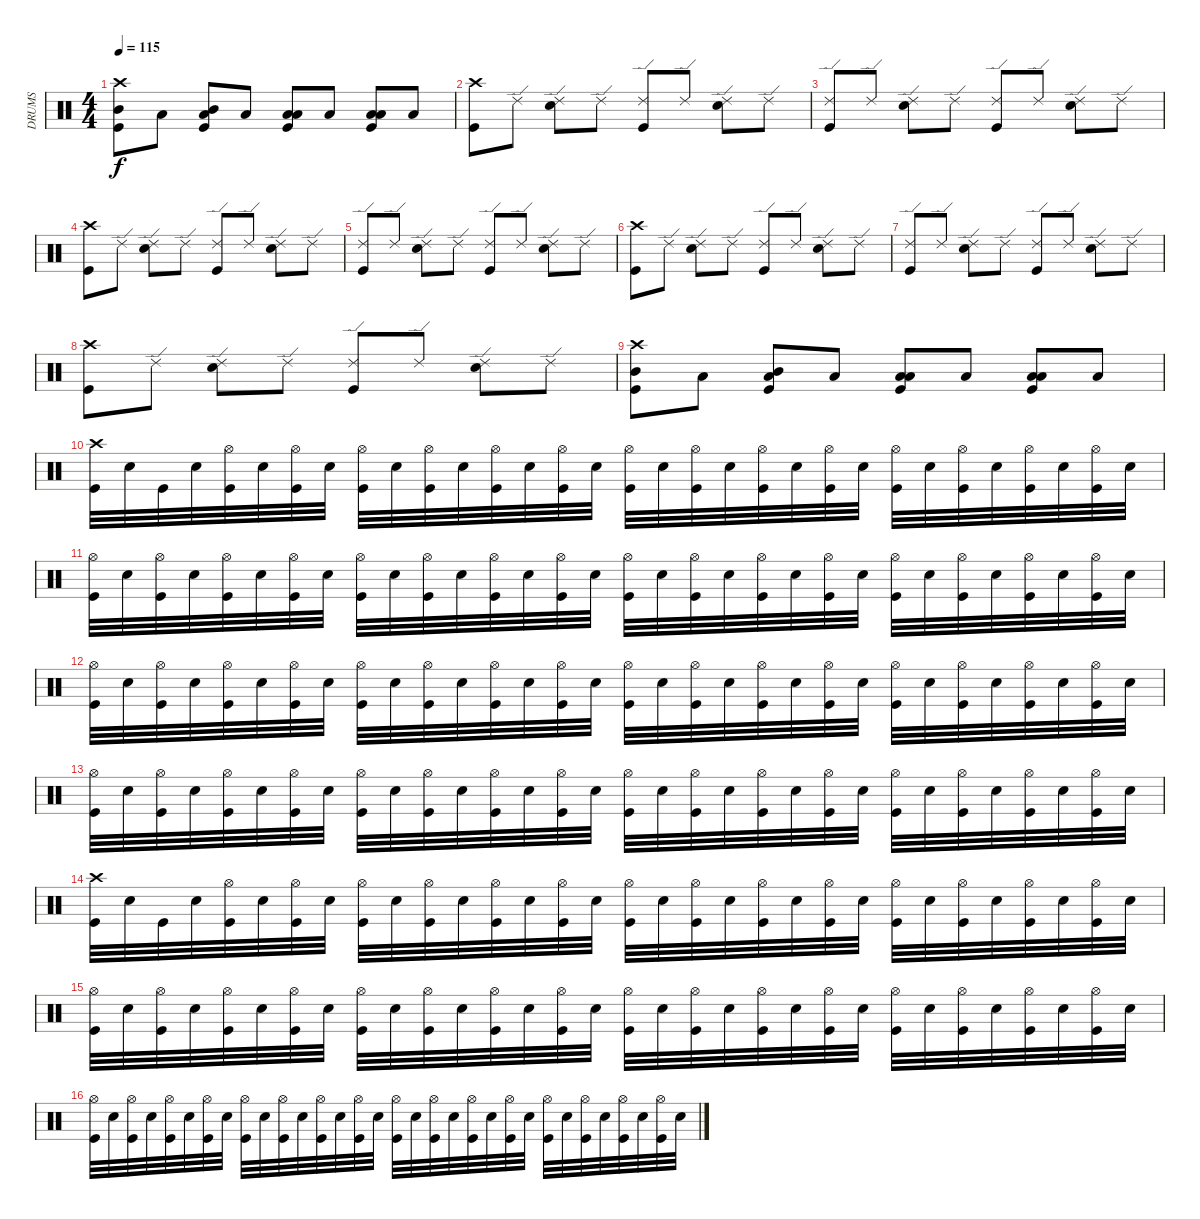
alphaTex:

\track ("DRUMS" "DRUMS") {instrument percussion}
\staff {score}
\articulation defaults
\ts (4 4)
\tempo 115
\clef neutral
\ks c
("Crash high (hit)" "Mid Tom (hit)" "Kick (hit)").8{dy f} "Low Tom (hit)".8 ("Low Tom (hit)" "Mid Tom (hit)" "Kick (hit)").8 "Low Tom (hit)".8 ("Low Tom (hit)" "Low Tom (hit)" "Kick (hit)").8 "Low Tom (hit)".8 ("Low Tom (hit)" "Low Tom (hit)" "Kick (hit)").8 "Low Tom (hit)".8 |
("Crash high (hit)" "Kick (hit)").8 "Ride (edge) 2".8 ("Ride (edge) 2" "Snare (hit) 2").8 "Ride (edge) 2".8 ("Ride (edge) 2" "Kick (hit)").8 "Ride (edge) 2".8 ("Ride (edge) 2" "Snare (hit) 2").8 "Ride (edge) 2".8 |
("Ride (edge) 2" "Kick (hit)").8 "Ride (edge) 2".8 ("Ride (edge) 2" "Snare (hit) 2").8 "Ride (edge) 2".8 ("Ride (edge) 2" "Kick (hit)").8 "Ride (edge) 2".8 ("Ride (edge) 2" "Snare (hit) 2").8 "Ride (edge) 2".8 |
("Crash high (hit)" "Kick (hit)").8 "Ride (edge) 2".8 ("Ride (edge) 2" "Snare (hit) 2").8 "Ride (edge) 2".8 ("Ride (edge) 2" "Kick (hit)").8 "Ride (edge) 2".8 ("Ride (edge) 2" "Snare (hit) 2").8 "Ride (edge) 2".8 |
("Ride (edge) 2" "Kick (hit)").8 "Ride (edge) 2".8 ("Ride (edge) 2" "Snare (hit) 2").8 "Ride (edge) 2".8 ("Ride (edge) 2" "Kick (hit)").8 "Ride (edge) 2".8 ("Ride (edge) 2" "Snare (hit) 2").8 "Ride (edge) 2".8 |
("Crash high (hit)" "Kick (hit)").8 "Ride (edge) 2".8 ("Ride (edge) 2" "Snare (hit) 2").8 "Ride (edge) 2".8 ("Ride (edge) 2" "Kick (hit)").8 "Ride (edge) 2".8 ("Ride (edge) 2" "Snare (hit) 2").8 "Ride (edge) 2".8 |
("Ride (edge) 2" "Kick (hit)").8 "Ride (edge) 2".8 ("Ride (edge) 2" "Snare (hit) 2").8 "Ride (edge) 2".8 ("Ride (edge) 2" "Kick (hit)").8 "Ride (edge) 2".8 ("Ride (edge) 2" "Snare (hit) 2").8 "Ride (edge) 2".8 |
("Crash high (hit)" "Kick (hit)").8 "Ride (edge) 2".8 ("Ride (edge) 2" "Snare (hit) 2").8 "Ride (edge) 2".8 ("Ride (edge) 2" "Kick (hit)").8 "Ride (edge) 2".8 ("Ride (edge) 2" "Snare (hit) 2").8 "Ride (edge) 2".8 |
("Crash high (hit)" "Mid Tom (hit)" "Kick (hit)").8 "Low Tom (hit)".8 ("Low Tom (hit)" "Mid Tom (hit)" "Kick (hit)").8 "Low Tom (hit)".8 ("Low Tom (hit)" "Low Tom (hit)" "Kick (hit)").8 "Low Tom (hit)".8 ("Low Tom (hit)" "Low Tom (hit)" "Kick (hit)").8 "Low Tom (hit)".8 |
("Crash high (hit)" "Kick (hit)").32 "Snare (hit) 2".32 "Kick (hit)".32 "Snare (hit) 2".32 ("Hi-Hat (open)" "Kick (hit)").32 "Snare (hit) 2".32 ("Hi-Hat (open)" "Kick (hit)").32 "Snare (hit) 2".32 ("Hi-Hat (open)" "Kick (hit)").32 "Snare (hit) 2".32 ("Hi-Hat (open)" "Kick (hit)").32 "Snare (hit) 2".32 ("Hi-Hat (open)" "Kick (hit)").32 "Snare (hit) 2".32 ("Hi-Hat (open)" "Kick (hit)").32 "Snare (hit) 2".32 ("Hi-Hat (open)" "Kick (hit)").32 "Snare (hit) 2".32 ("Hi-Hat (open)" "Kick (hit)").32 "Snare (hit) 2".32 ("Hi-Hat (open)" "Kick (hit)").32 "Snare (hit) 2".32 ("Hi-Hat (open)" "Kick (hit)").32 "Snare (hit) 2".32 ("Hi-Hat (open)" "Kick (hit)").32 "Snare (hit) 2".32 ("Hi-Hat (open)" "Kick (hit)").32 "Snare (hit) 2".32 ("Hi-Hat (open)" "Kick (hit)").32 "Snare (hit) 2".32 ("Hi-Hat (open)" "Kick (hit)").32 "Snare (hit) 2".32 |
("Hi-Hat (open)" "Kick (hit)").32 "Snare (hit) 2".32 ("Hi-Hat (open)" "Kick (hit)").32 "Snare (hit) 2".32 ("Hi-Hat (open)" "Kick (hit)").32 "Snare (hit) 2".32 ("Hi-Hat (open)" "Kick (hit)").32 "Snare (hit) 2".32 ("Hi-Hat (open)" "Kick (hit)").32 "Snare (hit) 2".32 ("Hi-Hat (open)" "Kick (hit)").32 "Snare (hit) 2".32 ("Hi-Hat (open)" "Kick (hit)").32 "Snare (hit) 2".32 ("Hi-Hat (open)" "Kick (hit)").32 "Snare (hit) 2".32 ("Hi-Hat (open)" "Kick (hit)").32 "Snare (hit) 2".32 ("Hi-Hat (open)" "Kick (hit)").32 "Snare (hit) 2".32 ("Hi-Hat (open)" "Kick (hit)").32 "Snare (hit) 2".32 ("Hi-Hat (open)" "Kick (hit)").32 "Snare (hit) 2".32 ("Hi-Hat (open)" "Kick (hit)").32 "Snare (hit) 2".32 ("Hi-Hat (open)" "Kick (hit)").32 "Snare (hit) 2".32 ("Hi-Hat (open)" "Kick (hit)").32 "Snare (hit) 2".32 ("Hi-Hat (open)" "Kick (hit)").32 "Snare (hit) 2".32 |
("Hi-Hat (open)" "Kick (hit)").32 "Snare (hit) 2".32 ("Hi-Hat (open)" "Kick (hit)").32 "Snare (hit) 2".32 ("Hi-Hat (open)" "Kick (hit)").32 "Snare (hit) 2".32 ("Hi-Hat (open)" "Kick (hit)").32 "Snare (hit) 2".32 ("Hi-Hat (open)" "Kick (hit)").32 "Snare (hit) 2".32 ("Hi-Hat (open)" "Kick (hit)").32 "Snare (hit) 2".32 ("Hi-Hat (open)" "Kick (hit)").32 "Snare (hit) 2".32 ("Hi-Hat (open)" "Kick (hit)").32 "Snare (hit) 2".32 ("Hi-Hat (open)" "Kick (hit)").32 "Snare (hit) 2".32 ("Hi-Hat (open)" "Kick (hit)").32 "Snare (hit) 2".32 ("Hi-Hat (open)" "Kick (hit)").32 "Snare (hit) 2".32 ("Hi-Hat (open)" "Kick (hit)").32 "Snare (hit) 2".32 ("Hi-Hat (open)" "Kick (hit)").32 "Snare (hit) 2".32 ("Hi-Hat (open)" "Kick (hit)").32 "Snare (hit) 2".32 ("Hi-Hat (open)" "Kick (hit)").32 "Snare (hit) 2".32 ("Hi-Hat (open)" "Kick (hit)").32 "Snare (hit) 2".32 |
("Hi-Hat (open)" "Kick (hit)").32 "Snare (hit) 2".32 ("Hi-Hat (open)" "Kick (hit)").32 "Snare (hit) 2".32 ("Hi-Hat (open)" "Kick (hit)").32 "Snare (hit) 2".32 ("Hi-Hat (open)" "Kick (hit)").32 "Snare (hit) 2".32 ("Hi-Hat (open)" "Kick (hit)").32 "Snare (hit) 2".32 ("Hi-Hat (open)" "Kick (hit)").32 "Snare (hit) 2".32 ("Hi-Hat (open)" "Kick (hit)").32 "Snare (hit) 2".32 ("Hi-Hat (open)" "Kick (hit)").32 "Snare (hit) 2".32 ("Hi-Hat (open)" "Kick (hit)").32 "Snare (hit) 2".32 ("Hi-Hat (open)" "Kick (hit)").32 "Snare (hit) 2".32 ("Hi-Hat (open)" "Kick (hit)").32 "Snare (hit) 2".32 ("Hi-Hat (open)" "Kick (hit)").32 "Snare (hit) 2".32 ("Hi-Hat (open)" "Kick (hit)").32 "Snare (hit) 2".32 ("Hi-Hat (open)" "Kick (hit)").32 "Snare (hit) 2".32 ("Hi-Hat (open)" "Kick (hit)").32 "Snare (hit) 2".32 ("Hi-Hat (open)" "Kick (hit)").32 "Snare (hit) 2".32 |
("Crash high (hit)" "Kick (hit)").32 "Snare (hit) 2".32 "Kick (hit)".32 "Snare (hit) 2".32 ("Hi-Hat (open)" "Kick (hit)").32 "Snare (hit) 2".32 ("Hi-Hat (open)" "Kick (hit)").32 "Snare (hit) 2".32 ("Hi-Hat (open)" "Kick (hit)").32 "Snare (hit) 2".32 ("Hi-Hat (open)" "Kick (hit)").32 "Snare (hit) 2".32 ("Hi-Hat (open)" "Kick (hit)").32 "Snare (hit) 2".32 ("Hi-Hat (open)" "Kick (hit)").32 "Snare (hit) 2".32 ("Hi-Hat (open)" "Kick (hit)").32 "Snare (hit) 2".32 ("Hi-Hat (open)" "Kick (hit)").32 "Snare (hit) 2".32 ("Hi-Hat (open)" "Kick (hit)").32 "Snare (hit) 2".32 ("Hi-Hat (open)" "Kick (hit)").32 "Snare (hit) 2".32 ("Hi-Hat (open)" "Kick (hit)").32 "Snare (hit) 2".32 ("Hi-Hat (open)" "Kick (hit)").32 "Snare (hit) 2".32 ("Hi-Hat (open)" "Kick (hit)").32 "Snare (hit) 2".32 ("Hi-Hat (open)" "Kick (hit)").32 "Snare (hit) 2".32 |
("Hi-Hat (open)" "Kick (hit)").32 "Snare (hit) 2".32 ("Hi-Hat (open)" "Kick (hit)").32 "Snare (hit) 2".32 ("Hi-Hat (open)" "Kick (hit)").32 "Snare (hit) 2".32 ("Hi-Hat (open)" "Kick (hit)").32 "Snare (hit) 2".32 ("Hi-Hat (open)" "Kick (hit)").32 "Snare (hit) 2".32 ("Hi-Hat (open)" "Kick (hit)").32 "Snare (hit) 2".32 ("Hi-Hat (open)" "Kick (hit)").32 "Snare (hit) 2".32 ("Hi-Hat (open)" "Kick (hit)").32 "Snare (hit) 2".32 ("Hi-Hat (open)" "Kick (hit)").32 "Snare (hit) 2".32 ("Hi-Hat (open)" "Kick (hit)").32 "Snare (hit) 2".32 ("Hi-Hat (open)" "Kick (hit)").32 "Snare (hit) 2".32 ("Hi-Hat (open)" "Kick (hit)").32 "Snare (hit) 2".32 ("Hi-Hat (open)" "Kick (hit)").32 "Snare (hit) 2".32 ("Hi-Hat (open)" "Kick (hit)").32 "Snare (hit) 2".32 ("Hi-Hat (open)" "Kick (hit)").32 "Snare (hit) 2".32 ("Hi-Hat (open)" "Kick (hit)").32 "Snare (hit) 2".32 |
("Hi-Hat (open)" "Kick (hit)").32 "Snare (hit) 2".32 ("Hi-Hat (open)" "Kick (hit)").32 "Snare (hit) 2".32 ("Hi-Hat (open)" "Kick (hit)").32 "Snare (hit) 2".32 ("Hi-Hat (open)" "Kick (hit)").32 "Snare (hit) 2".32 ("Hi-Hat (open)" "Kick (hit)").32 "Snare (hit) 2".32 ("Hi-Hat (open)" "Kick (hit)").32 "Snare (hit) 2".32 ("Hi-Hat (open)" "Kick (hit)").32 "Snare (hit) 2".32 ("Hi-Hat (open)" "Kick (hit)").32 "Snare (hit) 2".32 ("Hi-Hat (open)" "Kick (hit)").32 "Snare (hit) 2".32 ("Hi-Hat (open)" "Kick (hit)").32 "Snare (hit) 2".32 ("Hi-Hat (open)" "Kick (hit)").32 "Snare (hit) 2".32 ("Hi-Hat (open)" "Kick (hit)").32 "Snare (hit) 2".32 ("Hi-Hat (open)" "Kick (hit)").32 "Snare (hit) 2".32 ("Hi-Hat (open)" "Kick (hit)").32 "Snare (hit) 2".32 ("Hi-Hat (open)" "Kick (hit)").32 "Snare (hit) 2".32 ("Hi-Hat (open)" "Kick (hit)").32 "Snare (hit) 2".32
